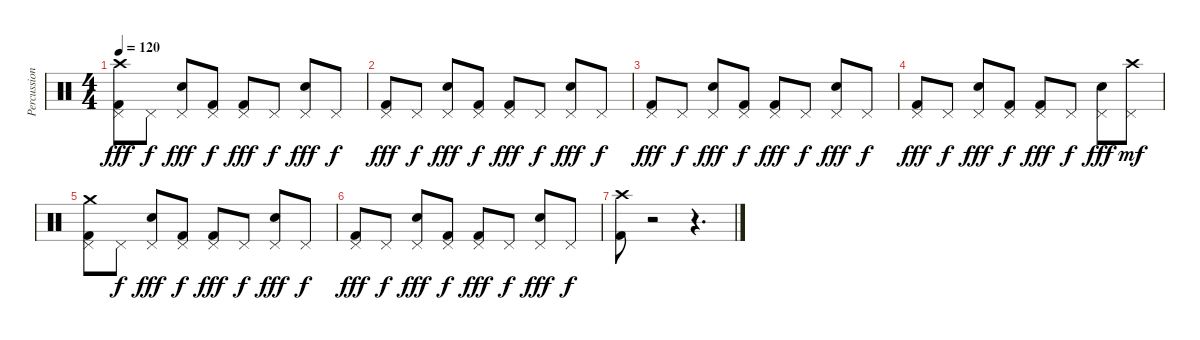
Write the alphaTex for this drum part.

\track ("Percussion" "Percussion") {instrument percussion}
\staff {score}
\articulation defaults
\ts (4 4)
\tempo 120
\clef neutral
\ks c
("Pedal Hi-Hat (hit)" "Kick (hit) 2" "Crash high (hit)").8{dy fff} "Pedal Hi-Hat (hit)".8{dy f} ("Pedal Hi-Hat (hit)" "Snare (hit) 2").8{dy fff} ("Pedal Hi-Hat (hit)" "Kick (hit) 2").8{dy f} ("Pedal Hi-Hat (hit)" "Kick (hit) 2").8{dy fff} "Pedal Hi-Hat (hit)".8{dy f} ("Pedal Hi-Hat (hit)" "Snare (hit) 2").8{dy fff} "Pedal Hi-Hat (hit)".8{dy f} |
("Pedal Hi-Hat (hit)" "Kick (hit) 2").8{dy fff} "Pedal Hi-Hat (hit)".8{dy f} ("Pedal Hi-Hat (hit)" "Snare (hit) 2").8{dy fff} ("Pedal Hi-Hat (hit)" "Kick (hit) 2").8{dy f} ("Pedal Hi-Hat (hit)" "Kick (hit) 2").8{dy fff} "Pedal Hi-Hat (hit)".8{dy f} ("Pedal Hi-Hat (hit)" "Snare (hit) 2").8{dy fff} "Pedal Hi-Hat (hit)".8{dy f} |
("Pedal Hi-Hat (hit)" "Kick (hit) 2").8{dy fff} "Pedal Hi-Hat (hit)".8{dy f} ("Pedal Hi-Hat (hit)" "Snare (hit) 2").8{dy fff} ("Pedal Hi-Hat (hit)" "Kick (hit) 2").8{dy f} ("Pedal Hi-Hat (hit)" "Kick (hit) 2").8{dy fff} "Pedal Hi-Hat (hit)".8{dy f} ("Pedal Hi-Hat (hit)" "Snare (hit) 2").8{dy fff} "Pedal Hi-Hat (hit)".8{dy f} |
("Pedal Hi-Hat (hit)" "Kick (hit) 2").8{dy fff} "Pedal Hi-Hat (hit)".8{dy f} ("Pedal Hi-Hat (hit)" "Snare (hit) 2").8{dy fff} ("Pedal Hi-Hat (hit)" "Kick (hit) 2").8{dy f} ("Pedal Hi-Hat (hit)" "Kick (hit) 2").8{dy fff} "Pedal Hi-Hat (hit)".8{dy f} ("Pedal Hi-Hat (hit)" "Snare (hit) 2").8{dy fff} ("Pedal Hi-Hat (hit)" "Crash high (hit)").8{dy mf} |
("Pedal Hi-Hat (hit)" "Kick (hit) 2" "Crash medium (hit)").8 "Pedal Hi-Hat (hit)".8{dy f} ("Pedal Hi-Hat (hit)" "Snare (hit) 2").8{dy fff} ("Pedal Hi-Hat (hit)" "Kick (hit) 2").8{dy f} ("Pedal Hi-Hat (hit)" "Kick (hit) 2").8{dy fff} "Pedal Hi-Hat (hit)".8{dy f} ("Pedal Hi-Hat (hit)" "Snare (hit) 2").8{dy fff} "Pedal Hi-Hat (hit)".8{dy f} |
("Pedal Hi-Hat (hit)" "Kick (hit) 2").8{dy fff} "Pedal Hi-Hat (hit)".8{dy f} ("Pedal Hi-Hat (hit)" "Snare (hit) 2").8{dy fff} ("Pedal Hi-Hat (hit)" "Kick (hit) 2").8{dy f} ("Pedal Hi-Hat (hit)" "Kick (hit) 2").8{dy fff} "Pedal Hi-Hat (hit)".8{dy f} ("Pedal Hi-Hat (hit)" "Snare (hit) 2").8{dy fff} "Pedal Hi-Hat (hit)".8{dy f} |
("Crash high (hit)" "Kick (hit) 2").8 r.2 r.4{d}
